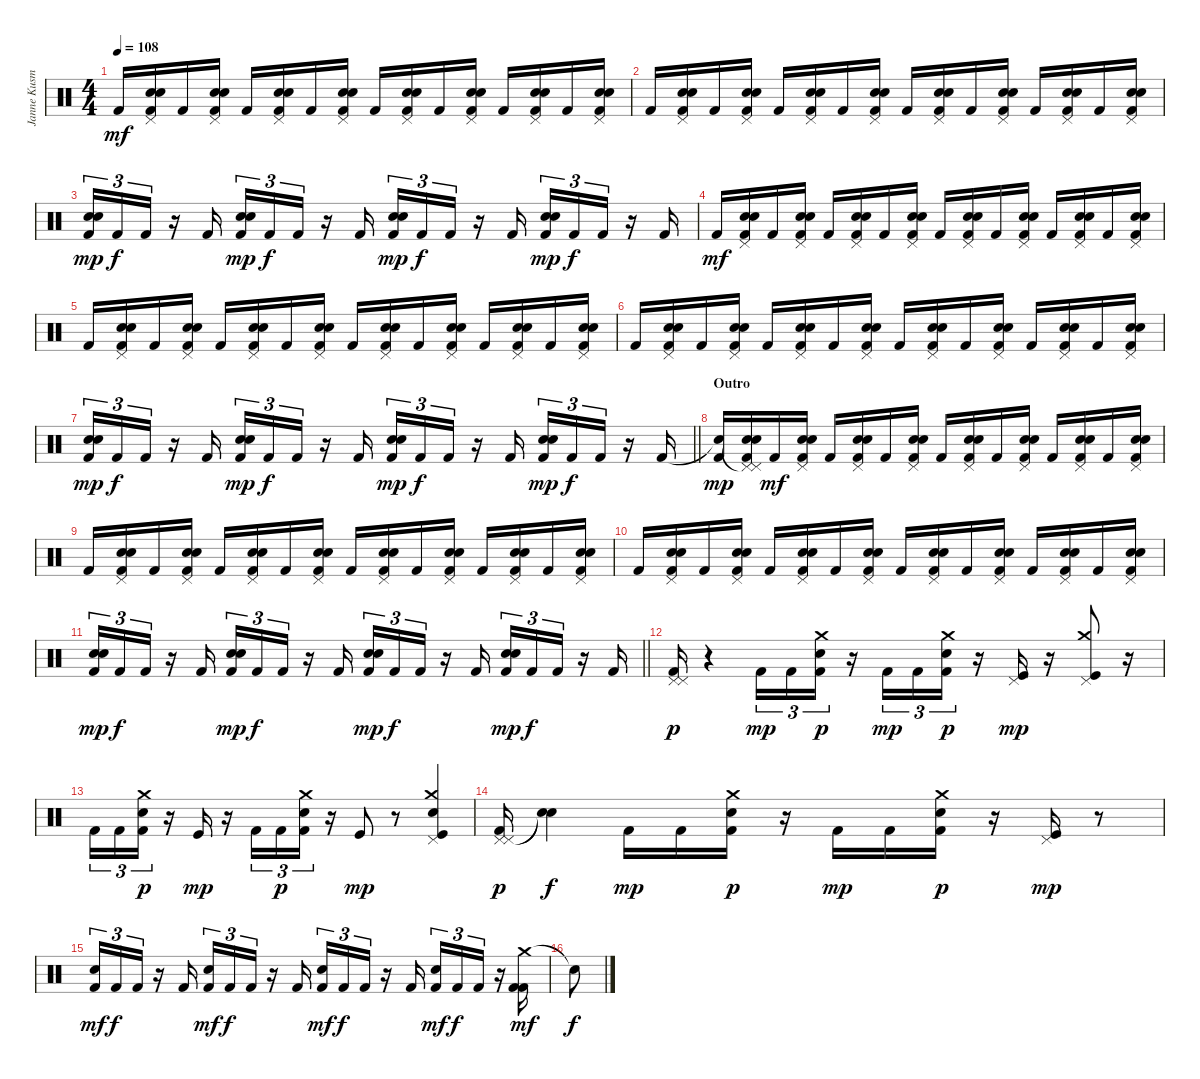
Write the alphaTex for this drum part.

\track ("Janne Kusmin" "Janne Kusm") {instrument percussion}
\staff {score}
\articulation defaults
\ts (4 4)
\tempo 108
\clef neutral
\ks c "Kick (hit) 2".16{dy mf}
("Pedal Hi-Hat (hit)" "Snare (hit) 2" "Snare (hit) 2" "Kick (hit) 2").16 "Kick (hit) 2".16 ("Pedal Hi-Hat (hit)" "Snare (hit) 2" "Snare (hit) 2" "Kick (hit) 2").16 "Kick (hit) 2".16 ("Pedal Hi-Hat (hit)" "Snare (hit) 2" "Snare (hit) 2" "Kick (hit) 2").16 "Kick (hit) 2".16 ("Pedal Hi-Hat (hit)" "Snare (hit) 2" "Snare (hit) 2" "Kick (hit) 2").16 "Kick (hit) 2".16 ("Pedal Hi-Hat (hit)" "Snare (hit) 2" "Snare (hit) 2" "Kick (hit) 2").16 "Kick (hit) 2".16 ("Pedal Hi-Hat (hit)" "Snare (hit) 2" "Snare (hit) 2" "Kick (hit) 2").16 "Kick (hit) 2".16 ("Pedal Hi-Hat (hit)" "Snare (hit) 2" "Snare (hit) 2" "Kick (hit) 2").16 "Kick (hit) 2".16 ("Pedal Hi-Hat (hit)" "Snare (hit) 2" "Snare (hit) 2" "Kick (hit) 2").16 |
"Kick (hit) 2".16 ("Pedal Hi-Hat (hit)" "Snare (hit) 2" "Snare (hit) 2" "Kick (hit) 2").16 "Kick (hit) 2".16 ("Pedal Hi-Hat (hit)" "Snare (hit) 2" "Snare (hit) 2" "Kick (hit) 2").16 "Kick (hit) 2".16 ("Pedal Hi-Hat (hit)" "Snare (hit) 2" "Snare (hit) 2" "Kick (hit) 2").16 "Kick (hit) 2".16 ("Pedal Hi-Hat (hit)" "Snare (hit) 2" "Snare (hit) 2" "Kick (hit) 2").16 "Kick (hit) 2".16 ("Pedal Hi-Hat (hit)" "Snare (hit) 2" "Snare (hit) 2" "Kick (hit) 2").16 "Kick (hit) 2".16 ("Pedal Hi-Hat (hit)" "Snare (hit) 2" "Snare (hit) 2" "Kick (hit) 2").16 "Kick (hit) 2".16 ("Pedal Hi-Hat (hit)" "Snare (hit) 2" "Snare (hit) 2" "Kick (hit) 2").16 "Kick (hit) 2".16 ("Pedal Hi-Hat (hit)" "Snare (hit) 2" "Snare (hit) 2" "Kick (hit) 2").16 |
("Kick (hit) 2" "Snare (hit) 2" "Snare (hit) 2").16{tu (3 2) dy mp} "Kick (hit) 2".16{tu (3 2) dy f} "Kick (hit) 2".16{tu (3 2)} r.16 "Kick (hit) 2".16 ("Kick (hit) 2" "Snare (hit) 2" "Snare (hit) 2").16{tu (3 2) dy mp} "Kick (hit) 2".16{tu (3 2) dy f} "Kick (hit) 2".16{tu (3 2)} r.16 "Kick (hit) 2".16 ("Kick (hit) 2" "Snare (hit) 2" "Snare (hit) 2").16{tu (3 2) dy mp} "Kick (hit) 2".16{tu (3 2) dy f} "Kick (hit) 2".16{tu (3 2)} r.16 "Kick (hit) 2".16 ("Kick (hit) 2" "Snare (hit) 2" "Snare (hit) 2").16{tu (3 2) dy mp} "Kick (hit) 2".16{tu (3 2) dy f} "Kick (hit) 2".16{tu (3 2)} r.16 "Kick (hit) 2".16 |
"Kick (hit) 2".16{dy mf} ("Pedal Hi-Hat (hit)" "Snare (hit) 2" "Snare (hit) 2" "Kick (hit) 2").16 "Kick (hit) 2".16 ("Pedal Hi-Hat (hit)" "Snare (hit) 2" "Snare (hit) 2" "Kick (hit) 2").16 "Kick (hit) 2".16 ("Pedal Hi-Hat (hit)" "Snare (hit) 2" "Snare (hit) 2" "Kick (hit) 2").16 "Kick (hit) 2".16 ("Pedal Hi-Hat (hit)" "Snare (hit) 2" "Snare (hit) 2" "Kick (hit) 2").16 "Kick (hit) 2".16 ("Pedal Hi-Hat (hit)" "Snare (hit) 2" "Snare (hit) 2" "Kick (hit) 2").16 "Kick (hit) 2".16 ("Pedal Hi-Hat (hit)" "Snare (hit) 2" "Snare (hit) 2" "Kick (hit) 2").16 "Kick (hit) 2".16 ("Pedal Hi-Hat (hit)" "Snare (hit) 2" "Snare (hit) 2" "Kick (hit) 2").16 "Kick (hit) 2".16 ("Pedal Hi-Hat (hit)" "Snare (hit) 2" "Snare (hit) 2" "Kick (hit) 2").16 |
"Kick (hit) 2".16 ("Pedal Hi-Hat (hit)" "Snare (hit) 2" "Snare (hit) 2" "Kick (hit) 2").16 "Kick (hit) 2".16 ("Pedal Hi-Hat (hit)" "Snare (hit) 2" "Snare (hit) 2" "Kick (hit) 2").16 "Kick (hit) 2".16 ("Pedal Hi-Hat (hit)" "Snare (hit) 2" "Snare (hit) 2" "Kick (hit) 2").16 "Kick (hit) 2".16 ("Pedal Hi-Hat (hit)" "Snare (hit) 2" "Snare (hit) 2" "Kick (hit) 2").16 "Kick (hit) 2".16 ("Pedal Hi-Hat (hit)" "Snare (hit) 2" "Snare (hit) 2" "Kick (hit) 2").16 "Kick (hit) 2".16 ("Pedal Hi-Hat (hit)" "Snare (hit) 2" "Snare (hit) 2" "Kick (hit) 2").16 "Kick (hit) 2".16 ("Pedal Hi-Hat (hit)" "Snare (hit) 2" "Snare (hit) 2" "Kick (hit) 2").16 "Kick (hit) 2".16 ("Pedal Hi-Hat (hit)" "Snare (hit) 2" "Snare (hit) 2" "Kick (hit) 2").16 |
"Kick (hit) 2".16 ("Pedal Hi-Hat (hit)" "Snare (hit) 2" "Snare (hit) 2" "Kick (hit) 2").16 "Kick (hit) 2".16 ("Pedal Hi-Hat (hit)" "Snare (hit) 2" "Snare (hit) 2" "Kick (hit) 2").16 "Kick (hit) 2".16 ("Pedal Hi-Hat (hit)" "Snare (hit) 2" "Snare (hit) 2" "Kick (hit) 2").16 "Kick (hit) 2".16 ("Pedal Hi-Hat (hit)" "Snare (hit) 2" "Snare (hit) 2" "Kick (hit) 2").16 "Kick (hit) 2".16 ("Pedal Hi-Hat (hit)" "Snare (hit) 2" "Snare (hit) 2" "Kick (hit) 2").16 "Kick (hit) 2".16 ("Pedal Hi-Hat (hit)" "Snare (hit) 2" "Snare (hit) 2" "Kick (hit) 2").16 "Kick (hit) 2".16 ("Pedal Hi-Hat (hit)" "Snare (hit) 2" "Snare (hit) 2" "Kick (hit) 2").16 "Kick (hit) 2".16 ("Pedal Hi-Hat (hit)" "Snare (hit) 2" "Snare (hit) 2" "Kick (hit) 2").16 |
\barLineRight lightlight
("Kick (hit) 2" "Snare (hit) 2" "Snare (hit) 2").16{tu (3 2) dy mp} "Kick (hit) 2".16{tu (3 2) dy f} "Kick (hit) 2".16{tu (3 2)} r.16 "Kick (hit) 2".16 ("Kick (hit) 2" "Snare (hit) 2" "Snare (hit) 2").16{tu (3 2) dy mp} "Kick (hit) 2".16{tu (3 2) dy f} "Kick (hit) 2".16{tu (3 2)} r.16 "Kick (hit) 2".16 ("Kick (hit) 2" "Snare (hit) 2" "Snare (hit) 2").16{tu (3 2) dy mp} "Kick (hit) 2".16{tu (3 2) dy f} "Kick (hit) 2".16{tu (3 2)} r.16 "Kick (hit) 2".16 ("Kick (hit) 2" "Snare (hit) 2" "Snare (hit) 2").16{tu (3 2) dy mp} "Kick (hit) 2".16{tu (3 2) dy f} "Kick (hit) 2".16{tu (3 2)} r.16 "Kick (hit) 2".16 |
\section ("" "Outro")
("Snare (hit)"{t} "Kick (hit) 2").16{dy mp} ("Pedal Hi-Hat (hit)"{t} "Pedal Hi-Hat (hit)" "Snare (hit) 2" "Snare (hit) 2" "Kick (hit) 2").16 "Kick (hit) 2".16{dy mf} ("Pedal Hi-Hat (hit)" "Snare (hit) 2" "Snare (hit) 2" "Kick (hit) 2").16 "Kick (hit) 2".16 ("Pedal Hi-Hat (hit)" "Snare (hit) 2" "Snare (hit) 2" "Kick (hit) 2").16 "Kick (hit) 2".16 ("Pedal Hi-Hat (hit)" "Snare (hit) 2" "Snare (hit) 2" "Kick (hit) 2").16 "Kick (hit) 2".16 ("Pedal Hi-Hat (hit)" "Snare (hit) 2" "Snare (hit) 2" "Kick (hit) 2").16 "Kick (hit) 2".16 ("Pedal Hi-Hat (hit)" "Snare (hit) 2" "Snare (hit) 2" "Kick (hit) 2").16 "Kick (hit) 2".16 ("Pedal Hi-Hat (hit)" "Snare (hit) 2" "Snare (hit) 2" "Kick (hit) 2").16 "Kick (hit) 2".16 ("Pedal Hi-Hat (hit)" "Snare (hit) 2" "Snare (hit) 2" "Kick (hit) 2").16 |
"Kick (hit) 2".16 ("Pedal Hi-Hat (hit)" "Snare (hit) 2" "Snare (hit) 2" "Kick (hit) 2").16 "Kick (hit) 2".16 ("Pedal Hi-Hat (hit)" "Snare (hit) 2" "Snare (hit) 2" "Kick (hit) 2").16 "Kick (hit) 2".16 ("Pedal Hi-Hat (hit)" "Snare (hit) 2" "Snare (hit) 2" "Kick (hit) 2").16 "Kick (hit) 2".16 ("Pedal Hi-Hat (hit)" "Snare (hit) 2" "Snare (hit) 2" "Kick (hit) 2").16 "Kick (hit) 2".16 ("Pedal Hi-Hat (hit)" "Snare (hit) 2" "Snare (hit) 2" "Kick (hit) 2").16 "Kick (hit) 2".16 ("Pedal Hi-Hat (hit)" "Snare (hit) 2" "Snare (hit) 2" "Kick (hit) 2").16 "Kick (hit) 2".16 ("Pedal Hi-Hat (hit)" "Snare (hit) 2" "Snare (hit) 2" "Kick (hit) 2").16 "Kick (hit) 2".16 ("Pedal Hi-Hat (hit)" "Snare (hit) 2" "Snare (hit) 2" "Kick (hit) 2").16 |
"Kick (hit) 2".16 ("Pedal Hi-Hat (hit)" "Snare (hit) 2" "Snare (hit) 2" "Kick (hit) 2").16 "Kick (hit) 2".16 ("Pedal Hi-Hat (hit)" "Snare (hit) 2" "Snare (hit) 2" "Kick (hit) 2").16 "Kick (hit) 2".16 ("Pedal Hi-Hat (hit)" "Snare (hit) 2" "Snare (hit) 2" "Kick (hit) 2").16 "Kick (hit) 2".16 ("Pedal Hi-Hat (hit)" "Snare (hit) 2" "Snare (hit) 2" "Kick (hit) 2").16 "Kick (hit) 2".16 ("Pedal Hi-Hat (hit)" "Snare (hit) 2" "Snare (hit) 2" "Kick (hit) 2").16 "Kick (hit) 2".16 ("Pedal Hi-Hat (hit)" "Snare (hit) 2" "Snare (hit) 2" "Kick (hit) 2").16 "Kick (hit) 2".16 ("Pedal Hi-Hat (hit)" "Snare (hit) 2" "Snare (hit) 2" "Kick (hit) 2").16 "Kick (hit) 2".16 ("Pedal Hi-Hat (hit)" "Snare (hit) 2" "Snare (hit) 2" "Kick (hit) 2").16 |
\barLineRight lightlight
("Kick (hit) 2" "Snare (hit) 2" "Snare (hit) 2").16{tu (3 2) dy mp} "Kick (hit) 2".16{tu (3 2) dy f} "Kick (hit) 2".16{tu (3 2)} r.16 "Kick (hit) 2".16 ("Kick (hit) 2" "Snare (hit) 2" "Snare (hit) 2").16{tu (3 2) dy mp} "Kick (hit) 2".16{tu (3 2) dy f} "Kick (hit) 2".16{tu (3 2)} r.16 "Kick (hit) 2".16 ("Kick (hit) 2" "Snare (hit) 2" "Snare (hit) 2").16{tu (3 2) dy mp} "Kick (hit) 2".16{tu (3 2) dy f} "Kick (hit) 2".16{tu (3 2)} r.16 "Kick (hit) 2".16 ("Kick (hit) 2" "Snare (hit) 2" "Snare (hit) 2").16{tu (3 2) dy mp} "Kick (hit) 2".16{tu (3 2) dy f} "Kick (hit) 2".16{tu (3 2)} r.16 "Kick (hit) 2".16 |
("Pedal Hi-Hat (hit)" "Pedal Hi-Hat (hit)" "Kick (hit) 2").16{dy p} r.4 "Kick (hit) 2".16{tu (3 2) dy mp} "Kick (hit) 2".16{tu (3 2)} ("Crash medium (hit)" "Snare (hit) 2" "Kick (hit) 2").16{tu (3 2) dy p} r.16 "Kick (hit) 2".16{tu (3 2) dy mp} "Kick (hit) 2".16{tu (3 2)} ("Crash medium (hit)" "Snare (hit) 2" "Kick (hit) 2").16{tu (3 2) dy p} r.16 ("Pedal Hi-Hat (hit)" "Kick (hit)").16{dy mp} r.16 ("Crash medium (hit)" "Pedal Hi-Hat (hit)" "Kick (hit)").8 r.16 |
"Kick (hit) 2".16{tu (3 2)} "Kick (hit) 2".16{tu (3 2)} ("Crash medium (hit)" "Snare (hit) 2" "Kick (hit) 2").16{tu (3 2) dy p} r.16 "Kick (hit)".16{dy mp} r.16 "Kick (hit) 2".16{tu (3 2)} "Kick (hit) 2".16{tu (3 2) dy p} ("Crash medium (hit)" "Snare (hit) 2" "Kick (hit) 2").16{tu (3 2)} r.16 "Kick (hit)".8{dy mp} r.8 ("Crash medium (hit)" "Pedal Hi-Hat (hit)" "Snare (hit) 2" "Kick (hit)").4 |
("Pedal Hi-Hat (hit)" "Pedal Hi-Hat (hit)" "Kick (hit) 2").16{dy p} ("Snare (hit)"{t} "Snare (hit)"{t}).4{dy f} "Kick (hit) 2".16{dy mp} "Kick (hit) 2".16 ("Crash medium (hit)" "Snare (hit) 2" "Kick (hit) 2").16{dy p} r.16 "Kick (hit) 2".16{dy mp} "Kick (hit) 2".16 ("Crash medium (hit)" "Snare (hit) 2" "Kick (hit) 2").16{dy p} r.16 ("Pedal Hi-Hat (hit)" "Kick (hit)").16{dy mp} r.8 |
("Kick (hit) 2" "Snare (hit) 2").16{tu (3 2) dy mf} "Kick (hit) 2".16{tu (3 2) dy f} "Kick (hit) 2".16{tu (3 2)} r.16 "Kick (hit) 2".16 ("Kick (hit) 2" "Snare (hit) 2").16{tu (3 2) dy mf} "Kick (hit) 2".16{tu (3 2) dy f} "Kick (hit) 2".16{tu (3 2)} r.16 "Kick (hit) 2".16 ("Kick (hit) 2" "Snare (hit) 2").16{tu (3 2) dy mf} "Kick (hit) 2".16{tu (3 2) dy f} "Kick (hit) 2".16{tu (3 2)} r.16 "Kick (hit) 2".16 ("Kick (hit) 2" "Snare (hit) 2").16{tu (3 2) dy mf} "Kick (hit) 2".16{tu (3 2) dy f} "Kick (hit) 2".16{tu (3 2)} r.16 ("Crash medium (hit)" "Kick (hit) 2" "Kick (hit) 2").16{dy mf} |
"Snare (hit)"{t}.8{dy f}
